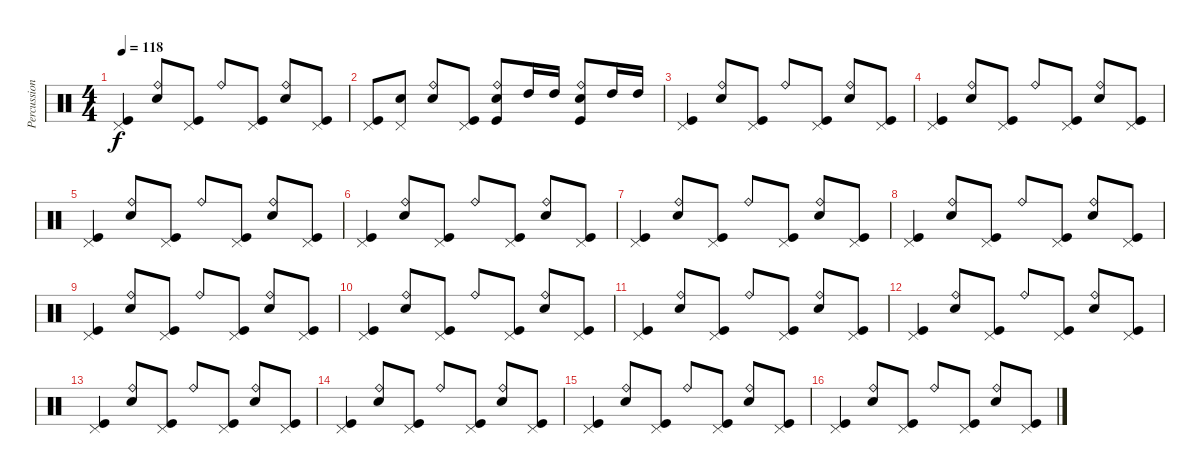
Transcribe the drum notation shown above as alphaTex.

\track ("Percussions" "Percussion") {instrument percussion}
\staff {score}
\articulation defaults
\ts (4 4)
\tempo 118
\clef neutral
\ks c
("Pedal Hi-Hat (hit)" "Kick (hit)").4{dy f} ("Ride (bell)" "Snare (hit) 2").8 ("Pedal Hi-Hat (hit)" "Kick (hit)").8 "Ride (bell)".8 ("Pedal Hi-Hat (hit)" "Kick (hit)").8 ("Ride (bell)" "Snare (hit) 2").8 ("Pedal Hi-Hat (hit)" "Kick (hit)").8 |
("Pedal Hi-Hat (hit)" "Kick (hit)").8 ("Pedal Hi-Hat (hit)" "Snare (hit) 2").8 ("Ride (bell)" "Snare (hit) 2").8 ("Pedal Hi-Hat (hit)" "Kick (hit)").8 ("Ride (bell)" "Snare (hit) 2" "Kick (hit)").8 "High Tom (hit)".16 "High Tom (hit)".16 ("Ride (bell)" "Snare (hit) 2" "Kick (hit)").8 "High Tom (hit)".16 "High Tom (hit)".16 |
("Pedal Hi-Hat (hit)" "Kick (hit)").4 ("Ride (bell)" "Snare (hit) 2").8 ("Pedal Hi-Hat (hit)" "Kick (hit)").8 "Ride (bell)".8 ("Pedal Hi-Hat (hit)" "Kick (hit)").8 ("Ride (bell)" "Snare (hit) 2").8 ("Pedal Hi-Hat (hit)" "Kick (hit)").8 |
("Pedal Hi-Hat (hit)" "Kick (hit)").4 ("Ride (bell)" "Snare (hit) 2").8 ("Pedal Hi-Hat (hit)" "Kick (hit)").8 "Ride (bell)".8 ("Pedal Hi-Hat (hit)" "Kick (hit)").8 ("Ride (bell)" "Snare (hit) 2").8 ("Pedal Hi-Hat (hit)" "Kick (hit)").8 |
("Pedal Hi-Hat (hit)" "Kick (hit)").4 ("Ride (bell)" "Snare (hit) 2").8 ("Pedal Hi-Hat (hit)" "Kick (hit)").8 "Ride (bell)".8 ("Pedal Hi-Hat (hit)" "Kick (hit)").8 ("Ride (bell)" "Snare (hit) 2").8 ("Pedal Hi-Hat (hit)" "Kick (hit)").8 |
("Pedal Hi-Hat (hit)" "Kick (hit)").4 ("Ride (bell)" "Snare (hit) 2").8 ("Pedal Hi-Hat (hit)" "Kick (hit)").8 "Ride (bell)".8 ("Pedal Hi-Hat (hit)" "Kick (hit)").8 ("Ride (bell)" "Snare (hit) 2").8 ("Pedal Hi-Hat (hit)" "Kick (hit)").8 |
("Pedal Hi-Hat (hit)" "Kick (hit)").4 ("Ride (bell)" "Snare (hit) 2").8 ("Pedal Hi-Hat (hit)" "Kick (hit)").8 "Ride (bell)".8 ("Pedal Hi-Hat (hit)" "Kick (hit)").8 ("Ride (bell)" "Snare (hit) 2").8 ("Pedal Hi-Hat (hit)" "Kick (hit)").8 |
("Pedal Hi-Hat (hit)" "Kick (hit)").4 ("Ride (bell)" "Snare (hit) 2").8 ("Pedal Hi-Hat (hit)" "Kick (hit)").8 "Ride (bell)".8 ("Pedal Hi-Hat (hit)" "Kick (hit)").8 ("Ride (bell)" "Snare (hit) 2").8 ("Pedal Hi-Hat (hit)" "Kick (hit)").8 |
("Pedal Hi-Hat (hit)" "Kick (hit)").4 ("Ride (bell)" "Snare (hit) 2").8 ("Pedal Hi-Hat (hit)" "Kick (hit)").8 "Ride (bell)".8 ("Pedal Hi-Hat (hit)" "Kick (hit)").8 ("Ride (bell)" "Snare (hit) 2").8 ("Pedal Hi-Hat (hit)" "Kick (hit)").8 |
("Pedal Hi-Hat (hit)" "Kick (hit)").4 ("Ride (bell)" "Snare (hit) 2").8 ("Pedal Hi-Hat (hit)" "Kick (hit)").8 "Ride (bell)".8 ("Pedal Hi-Hat (hit)" "Kick (hit)").8 ("Ride (bell)" "Snare (hit) 2").8 ("Pedal Hi-Hat (hit)" "Kick (hit)").8 |
("Pedal Hi-Hat (hit)" "Kick (hit)").4 ("Ride (bell)" "Snare (hit) 2").8 ("Pedal Hi-Hat (hit)" "Kick (hit)").8 "Ride (bell)".8 ("Pedal Hi-Hat (hit)" "Kick (hit)").8 ("Ride (bell)" "Snare (hit) 2").8 ("Pedal Hi-Hat (hit)" "Kick (hit)").8 |
("Pedal Hi-Hat (hit)" "Kick (hit)").4 ("Ride (bell)" "Snare (hit) 2").8 ("Pedal Hi-Hat (hit)" "Kick (hit)").8 "Ride (bell)".8 ("Pedal Hi-Hat (hit)" "Kick (hit)").8 ("Ride (bell)" "Snare (hit) 2").8 ("Pedal Hi-Hat (hit)" "Kick (hit)").8 |
("Pedal Hi-Hat (hit)" "Kick (hit)").4 ("Ride (bell)" "Snare (hit) 2").8 ("Pedal Hi-Hat (hit)" "Kick (hit)").8 "Ride (bell)".8 ("Pedal Hi-Hat (hit)" "Kick (hit)").8 ("Ride (bell)" "Snare (hit) 2").8 ("Pedal Hi-Hat (hit)" "Kick (hit)").8 |
("Pedal Hi-Hat (hit)" "Kick (hit)").4 ("Ride (bell)" "Snare (hit) 2").8 ("Pedal Hi-Hat (hit)" "Kick (hit)").8 "Ride (bell)".8 ("Pedal Hi-Hat (hit)" "Kick (hit)").8 ("Ride (bell)" "Snare (hit) 2").8 ("Pedal Hi-Hat (hit)" "Kick (hit)").8 |
("Pedal Hi-Hat (hit)" "Kick (hit)").4 ("Ride (bell)" "Snare (hit) 2").8 ("Pedal Hi-Hat (hit)" "Kick (hit)").8 "Ride (bell)".8 ("Pedal Hi-Hat (hit)" "Kick (hit)").8 ("Ride (bell)" "Snare (hit) 2").8 ("Pedal Hi-Hat (hit)" "Kick (hit)").8 |
("Pedal Hi-Hat (hit)" "Kick (hit)").4 ("Ride (bell)" "Snare (hit) 2").8 ("Pedal Hi-Hat (hit)" "Kick (hit)").8 "Ride (bell)".8 ("Pedal Hi-Hat (hit)" "Kick (hit)").8 ("Ride (bell)" "Snare (hit) 2").8 ("Pedal Hi-Hat (hit)" "Kick (hit)").8
